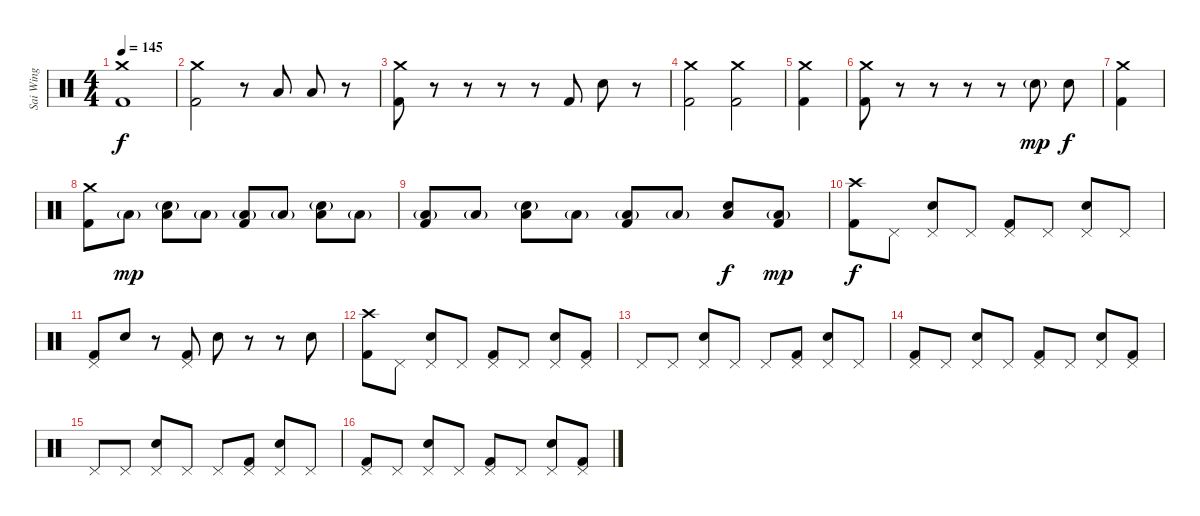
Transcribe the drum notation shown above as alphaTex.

\track ("Sai Wing" "Sai Wing") {instrument percussion}
\staff {score}
\articulation defaults
\ts (4 4)
\tempo 145
\clef neutral
\ks c
("Crash medium (hit)" "Kick (hit) 2").1{dy f} |
("Crash medium (hit)" "Kick (hit) 2").2 r.8 "Low Tom (hit)".8 "Low Tom (hit)".8 r.8 |
("Crash medium (hit)" "Kick (hit) 2").8 r.8 r.8 r.8 r.8 "Kick (hit) 2".8 "Electric Snare (hit)".8 r.8 |
("Crash medium (hit)" "Kick (hit) 2").2 ("Crash medium (hit)" "Kick (hit) 2").2 |
("Crash medium (hit)" "Kick (hit) 2").4 |
("Crash medium (hit)" "Kick (hit) 2").8 r.8 r.8 r.8 r.8 "Electric Snare (hit)"{g}.8{dy mp} "Electric Snare (hit)".8{dy f} |
("Crash medium (hit)" "Kick (hit) 2").4 |
("Crash medium (hit)" "Kick (hit) 2").8 "Low Tom (hit)"{g}.8{dy mp} ("Low Tom (hit)" "Snare (hit) 2"{g}).8 "Low Tom (hit)"{g}.8 ("Low Tom (hit)"{g} "Kick (hit) 2").8 "Low Tom (hit)"{g}.8 ("Low Tom (hit)" "Snare (hit) 2"{g}).8 "Low Tom (hit)"{g}.8 |
("Low Tom (hit)"{g} "Kick (hit) 2").8 "Low Tom (hit)"{g}.8 ("Low Tom (hit)" "Snare (hit) 2"{g}).8 "Low Tom (hit)"{g}.8 ("Low Tom (hit)"{g} "Kick (hit) 2").8 "Low Tom (hit)"{g}.8 ("Low Tom (hit)" "Snare (hit) 2").8{dy f} ("Low Tom (hit)"{g} "Kick (hit) 2").8{dy mp} |
("Crash high (hit)" "Kick (hit) 2").8{dy f} "Pedal Hi-Hat (hit)".8 ("Pedal Hi-Hat (hit)" "Snare (hit) 2").8 "Pedal Hi-Hat (hit)".8 ("Pedal Hi-Hat (hit)" "Kick (hit) 2").8 "Pedal Hi-Hat (hit)".8 ("Pedal Hi-Hat (hit)" "Snare (hit) 2").8 "Pedal Hi-Hat (hit)".8 |
("Pedal Hi-Hat (hit)" "Kick (hit) 2").8 "Snare (hit) 2".8 r.8 ("Pedal Hi-Hat (hit)" "Kick (hit) 2").8 "Snare (hit) 2".8 r.8 r.8 "Snare (hit) 2".8 |
("Crash high (hit)" "Kick (hit) 2").8 "Pedal Hi-Hat (hit)".8 ("Pedal Hi-Hat (hit)" "Snare (hit) 2").8 "Pedal Hi-Hat (hit)".8 ("Pedal Hi-Hat (hit)" "Kick (hit) 2").8 "Pedal Hi-Hat (hit)".8 ("Pedal Hi-Hat (hit)" "Snare (hit) 2").8 ("Pedal Hi-Hat (hit)" "Kick (hit) 2").8 |
"Pedal Hi-Hat (hit)".8 "Pedal Hi-Hat (hit)".8 ("Pedal Hi-Hat (hit)" "Snare (hit) 2").8 "Pedal Hi-Hat (hit)".8 "Pedal Hi-Hat (hit)".8 ("Pedal Hi-Hat (hit)" "Kick (hit) 2").8 ("Pedal Hi-Hat (hit)" "Snare (hit) 2").8 "Pedal Hi-Hat (hit)".8 |
("Pedal Hi-Hat (hit)" "Kick (hit) 2").8 "Pedal Hi-Hat (hit)".8 ("Pedal Hi-Hat (hit)" "Snare (hit) 2").8 "Pedal Hi-Hat (hit)".8 ("Pedal Hi-Hat (hit)" "Kick (hit) 2").8 "Pedal Hi-Hat (hit)".8 ("Pedal Hi-Hat (hit)" "Snare (hit) 2").8 ("Pedal Hi-Hat (hit)" "Kick (hit) 2").8 |
"Pedal Hi-Hat (hit)".8 "Pedal Hi-Hat (hit)".8 ("Pedal Hi-Hat (hit)" "Snare (hit) 2").8 "Pedal Hi-Hat (hit)".8 "Pedal Hi-Hat (hit)".8 ("Pedal Hi-Hat (hit)" "Kick (hit) 2").8 ("Pedal Hi-Hat (hit)" "Snare (hit) 2").8 "Pedal Hi-Hat (hit)".8 |
("Pedal Hi-Hat (hit)" "Kick (hit) 2").8 "Pedal Hi-Hat (hit)".8 ("Pedal Hi-Hat (hit)" "Snare (hit) 2").8 "Pedal Hi-Hat (hit)".8 ("Pedal Hi-Hat (hit)" "Kick (hit) 2").8 "Pedal Hi-Hat (hit)".8 ("Pedal Hi-Hat (hit)" "Snare (hit) 2").8 ("Pedal Hi-Hat (hit)" "Kick (hit) 2").8
